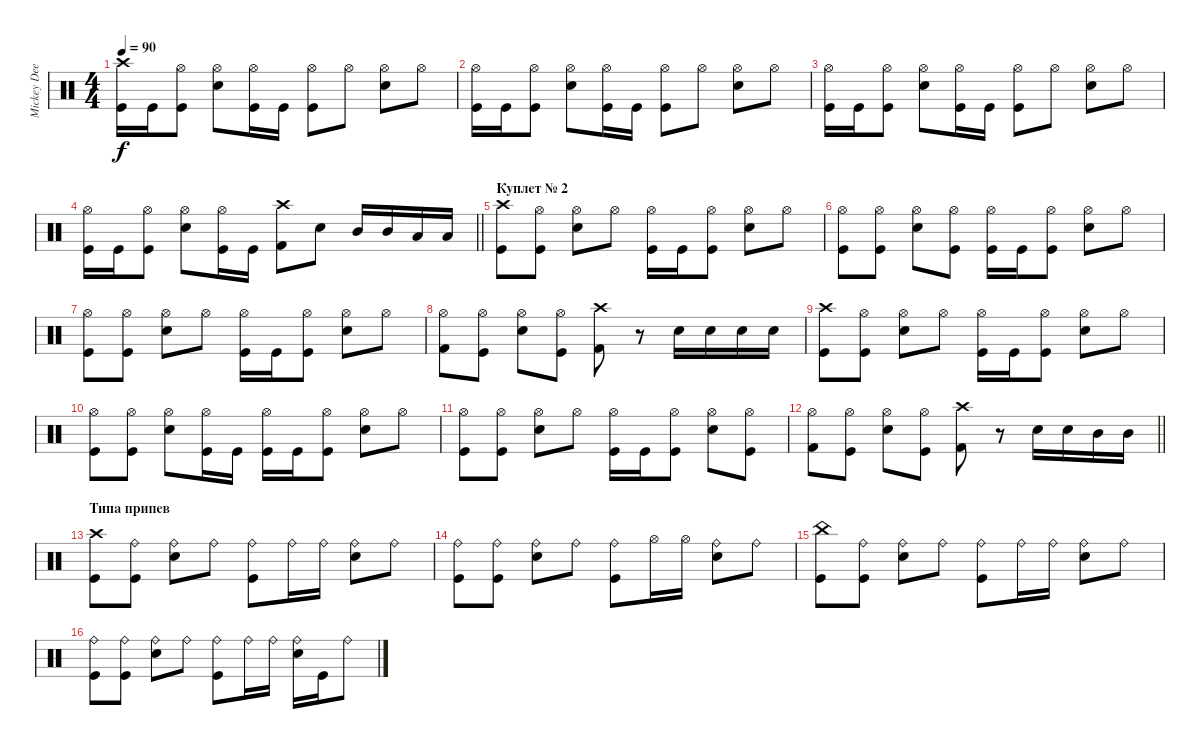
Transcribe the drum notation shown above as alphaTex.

\track ("Mickey Dee" "Mickey Dee") {instrument percussion}
\staff {score}
\articulation defaults
\ts (4 4)
\tempo 90
\clef neutral
\ks c
("Kick (hit)" "Crash high (hit)").16{dy f} "Kick (hit)".16 ("Kick (hit)" "Hi-Hat (open)").8 ("Snare (hit) 2" "Hi-Hat (open)").8 ("Kick (hit)" "Hi-Hat (open)").16 "Kick (hit)".16 ("Kick (hit)" "Hi-Hat (open)").8 "Hi-Hat (open)".8 ("Hi-Hat (open)" "Snare (hit) 2").8 "Hi-Hat (open)".8 |
("Kick (hit)" "Hi-Hat (open)").16 "Kick (hit)".16 ("Kick (hit)" "Hi-Hat (open)").8 ("Snare (hit) 2" "Hi-Hat (open)").8 ("Kick (hit)" "Hi-Hat (open)").16 "Kick (hit)".16 ("Kick (hit)" "Hi-Hat (open)").8 "Hi-Hat (open)".8 ("Hi-Hat (open)" "Snare (hit) 2").8 "Hi-Hat (open)".8 |
("Kick (hit)" "Hi-Hat (open)").16 "Kick (hit)".16 ("Kick (hit)" "Hi-Hat (open)").8 ("Snare (hit) 2" "Hi-Hat (open)").8 ("Kick (hit)" "Hi-Hat (open)").16 "Kick (hit)".16 ("Kick (hit)" "Hi-Hat (open)").8 "Hi-Hat (open)".8 ("Hi-Hat (open)" "Snare (hit) 2").8 "Hi-Hat (open)".8 |
\barLineRight lightlight
("Kick (hit)" "Hi-Hat (open)").16 "Kick (hit)".16 ("Kick (hit)" "Hi-Hat (open)").8 ("Snare (hit) 2" "Hi-Hat (open)").8 ("Kick (hit)" "Hi-Hat (open)").16 "Kick (hit)".16 ("Crash high (hit)" "Kick (hit) 2").8 "Snare (hit) 2".8 "Mid Tom (hit)".16 "Mid Tom (hit)".16 "Low Tom (hit)".16 "Low Tom (hit)".16 |
\section ("" "Куплет № 2")
("Kick (hit)" "Crash high (hit)").8 ("Kick (hit)" "Hi-Hat (open)").8 ("Hi-Hat (open)" "Snare (hit) 2").8 "Hi-Hat (open)".8 ("Kick (hit)" "Hi-Hat (open)").16 "Kick (hit)".16 ("Kick (hit)" "Hi-Hat (open)").8 ("Hi-Hat (open)" "Snare (hit) 2").8 "Hi-Hat (open)".8 |
("Kick (hit)" "Hi-Hat (open)").8 ("Kick (hit)" "Hi-Hat (open)").8 ("Hi-Hat (open)" "Snare (hit) 2").8 ("Hi-Hat (open)" "Kick (hit)").8 ("Kick (hit)" "Hi-Hat (open)").16 "Kick (hit)".16 ("Kick (hit)" "Hi-Hat (open)").8 ("Hi-Hat (open)" "Snare (hit) 2").8 "Hi-Hat (open)".8 |
("Kick (hit)" "Hi-Hat (open)").8 ("Kick (hit)" "Hi-Hat (open)").8 ("Hi-Hat (open)" "Snare (hit) 2").8 "Hi-Hat (open)".8 ("Kick (hit)" "Hi-Hat (open)").16 "Kick (hit)".16 ("Kick (hit)" "Hi-Hat (open)").8 ("Hi-Hat (open)" "Snare (hit) 2").8 "Hi-Hat (open)".8 |
("Hi-Hat (open)" "Kick (hit) 2").8 ("Kick (hit)" "Hi-Hat (open)").8 ("Hi-Hat (open)" "Snare (hit) 2").8 ("Kick (hit)" "Hi-Hat (open)").8 ("Crash high (hit)" "Kick (hit) 2").8 r.8 "Snare (hit) 2".16 "Snare (hit) 2".16 "Snare (hit) 2".16 "Snare (hit) 2".16 |
("Kick (hit)" "Crash high (hit)").8 ("Kick (hit)" "Hi-Hat (open)").8 ("Hi-Hat (open)" "Snare (hit) 2").8 "Hi-Hat (open)".8 ("Kick (hit)" "Hi-Hat (open)").16 "Kick (hit)".16 ("Kick (hit)" "Hi-Hat (open)").8 ("Hi-Hat (open)" "Snare (hit) 2").8 "Hi-Hat (open)".8 |
("Kick (hit)" "Hi-Hat (open)").8 ("Kick (hit)" "Hi-Hat (open)").8 ("Hi-Hat (open)" "Snare (hit) 2").8 ("Hi-Hat (open)" "Kick (hit)").16 "Kick (hit)".16 ("Kick (hit)" "Hi-Hat (open)").16 "Kick (hit)".16 ("Kick (hit)" "Hi-Hat (open)").8 ("Snare (hit) 2" "Hi-Hat (open)").8 "Hi-Hat (open)".8 |
("Kick (hit)" "Hi-Hat (open)").8 ("Kick (hit)" "Hi-Hat (open)").8 ("Hi-Hat (open)" "Snare (hit) 2").8 "Hi-Hat (open)".8 ("Kick (hit)" "Hi-Hat (open)").16 "Kick (hit)".16 ("Kick (hit)" "Hi-Hat (open)").8 ("Hi-Hat (open)" "Snare (hit) 2").8 ("Hi-Hat (open)" "Kick (hit)").8 |
\barLineRight lightlight
("Hi-Hat (open)" "Kick (hit) 2").8 ("Kick (hit)" "Hi-Hat (open)").8 ("Hi-Hat (open)" "Snare (hit) 2").8 ("Kick (hit)" "Hi-Hat (open)").8 ("Crash high (hit)" "Kick (hit) 2").8 r.8 "Snare (hit) 2".16 "Snare (hit) 2".16 "Mid Tom (hit)".16 "Mid Tom (hit)".16 |
\section ("" "Типа припев")
("Kick (hit)" "Crash high (hit)").8 ("Kick (hit)" "Ride (bell)").8 ("Ride (bell)" "Snare (hit) 2").8 "Ride (bell)".8 ("Ride (bell)" "Kick (hit)").8 "Ride (bell)".16 "Ride (bell)".16 ("Ride (bell)" "Snare (hit) 2").8 "Ride (bell)".8 |
("Kick (hit)" "Ride (bell)").8 ("Ride (bell)" "Kick (hit)").8 ("Snare (hit) 2" "Ride (bell)").8 "Ride (bell)".8 ("Kick (hit)" "Ride (bell)").8 "Hi-Hat (open)".16 "Hi-Hat (open)".16 ("Snare (hit) 2" "Ride (bell)").8 "Ride (bell)".8 |
("Kick (hit)" "China (hit)").8 ("Kick (hit)" "Ride (bell)").8 ("Ride (bell)" "Snare (hit) 2").8 "Ride (bell)".8 ("Ride (bell)" "Kick (hit)").8 "Ride (bell)".16 "Ride (bell)".16 ("Ride (bell)" "Snare (hit) 2").8 "Ride (bell)".8 |
("Kick (hit)" "Ride (bell)").8 ("Kick (hit)" "Ride (bell)").8 ("Ride (bell)" "Snare (hit) 2").8 "Ride (bell)".8 ("Ride (bell)" "Kick (hit)").8 "Ride (bell)".16 "Ride (bell)".16 ("Ride (bell)" "Snare (hit) 2").16 "Kick (hit)".16 "Ride (bell)".8
